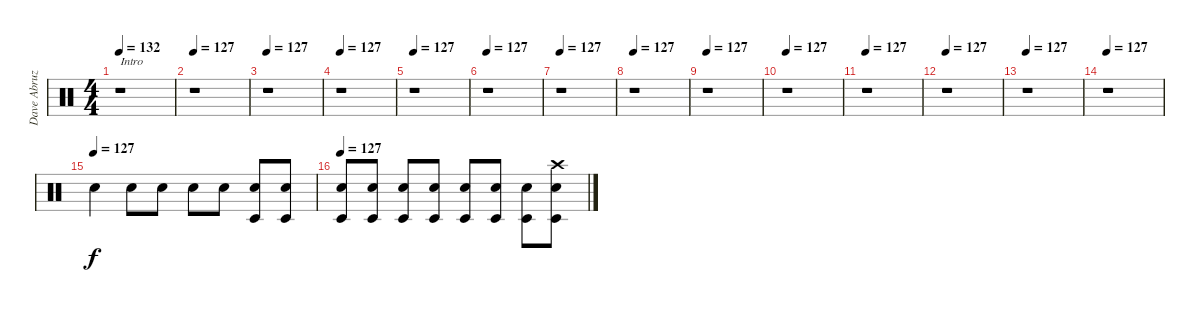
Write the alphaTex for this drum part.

\track ("Dave Abruzzesse" "Dave Abruz") {instrument percussion}
\staff {score}
\articulation defaults
\ts (4 4)
\tempo 132
\tempo 127
\tempo 132
\clef neutral
\ks c
r.1{txt "Intro" dy f} |
\tempo 127
r.1 |
\tempo 127
r.1 |
\tempo 127
r.1 |
\tempo 127
r.1 |
\tempo 127
r.1 |
\tempo 127
r.1 |
\tempo 127
r.1 |
\tempo 127
r.1 |
\tempo 127
r.1 |
\tempo 127
r.1 |
\tempo 127
r.1 |
\tempo 127
r.1 |
\tempo 127
r.1 |
\tempo (127)
"Snare (hit) 2".4 "Snare (hit) 2".8 "Snare (hit) 2".8 "Snare (hit) 2".8 "Snare (hit) 2".8 ("Snare (hit) 2" "Timbale low (hit)").8 ("Snare (hit) 2" "Timbale low (hit)").8 |
\tempo 127
("Electric Snare (hit)" "Timbale low (hit)").8 ("Electric Snare (hit)" "Timbale low (hit)").8 ("Electric Snare (hit)" "Timbale low (hit)").8 ("Electric Snare (hit)" "Timbale low (hit)").8 ("Electric Snare (hit)" "Timbale low (hit)").8 ("Electric Snare (hit)" "Timbale low (hit)").8 ("Electric Snare (hit)" "Timbale low (hit)").8 ("Crash high (hit)" "Electric Snare (hit)" "Timbale low (hit)").8
